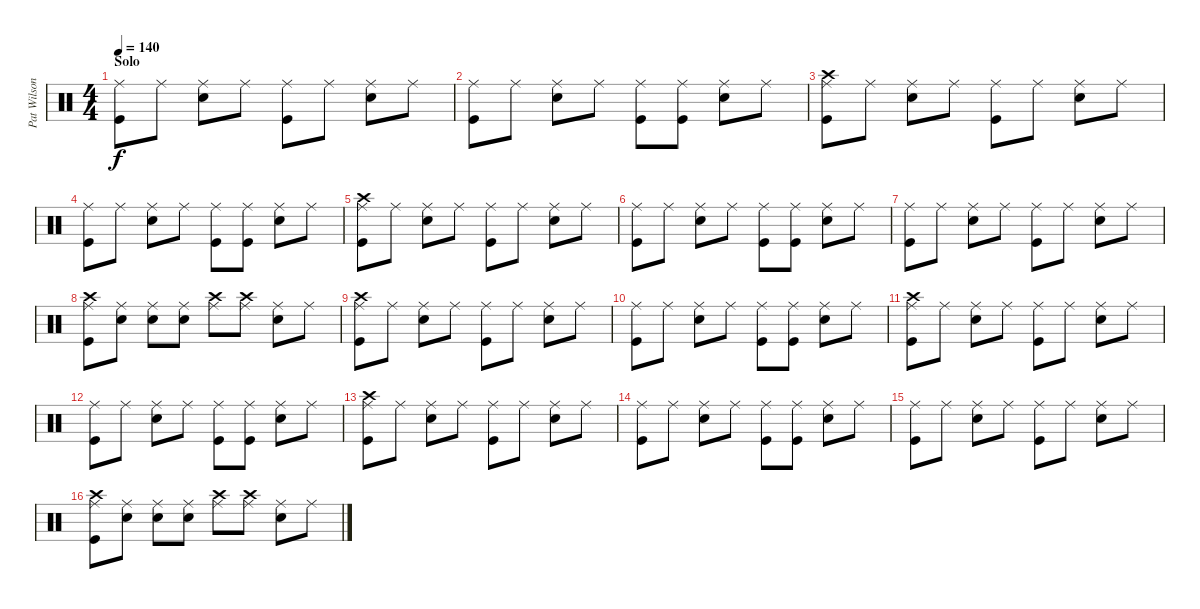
\track ("Pat Wilson " "Pat Wilson") {instrument percussion}
\staff {score}
\articulation defaults
\ts (4 4)
\section ("" "Solo")
\tempo 140
\clef neutral
\ks c
("Kick (hit)" "Ride (middle)").8{dy f} "Ride (middle)".8 ("Snare (hit) 2" "Ride (middle)").8 "Ride (middle)".8 ("Kick (hit)" "Ride (middle)").8 "Ride (middle)".8 ("Snare (hit) 2" "Ride (middle)").8 "Ride (middle)".8 |
("Kick (hit)" "Ride (middle)").8 "Ride (middle)".8 ("Snare (hit) 2" "Ride (middle)").8 "Ride (middle)".8 ("Kick (hit)" "Ride (middle)").8 ("Kick (hit)" "Ride (middle)").8 ("Snare (hit) 2" "Ride (middle)").8 "Ride (middle)".8 |
("Crash high (hit)" "Kick (hit)" "Ride (middle)").8 "Ride (middle)".8 ("Snare (hit) 2" "Ride (middle)").8 "Ride (middle)".8 ("Kick (hit)" "Ride (middle)").8 "Ride (middle)".8 ("Snare (hit) 2" "Ride (middle)").8 "Ride (middle)".8 |
("Kick (hit)" "Ride (middle)").8 "Ride (middle)".8 ("Snare (hit) 2" "Ride (middle)").8 "Ride (middle)".8 ("Kick (hit)" "Ride (middle)").8 ("Kick (hit)" "Ride (middle)").8 ("Snare (hit) 2" "Ride (middle)").8 "Ride (middle)".8 |
("Crash high (hit)" "Kick (hit)" "Ride (middle)").8 "Ride (middle)".8 ("Snare (hit) 2" "Ride (middle)").8 "Ride (middle)".8 ("Kick (hit)" "Ride (middle)").8 "Ride (middle)".8 ("Snare (hit) 2" "Ride (middle)").8 "Ride (middle)".8 |
("Kick (hit)" "Ride (middle)").8 "Ride (middle)".8 ("Snare (hit) 2" "Ride (middle)").8 "Ride (middle)".8 ("Kick (hit)" "Ride (middle)").8 ("Kick (hit)" "Ride (middle)").8 ("Snare (hit) 2" "Ride (middle)").8 "Ride (middle)".8 |
("Kick (hit)" "Ride (middle)").8 "Ride (middle)".8 ("Snare (hit) 2" "Ride (middle)").8 "Ride (middle)".8 ("Kick (hit)" "Ride (middle)").8 "Ride (middle)".8 ("Snare (hit) 2" "Ride (middle)").8 "Ride (middle)".8 |
("Crash high (hit)" "Kick (hit)" "Ride (middle)").8 ("Snare (hit) 2" "Ride (middle)").8 ("Snare (hit) 2" "Ride (middle)").8 ("Snare (hit) 2" "Ride (middle)").8 ("Crash high (hit)" "Ride (middle)").8 ("Crash high (hit)" "Ride (middle)").8 ("Snare (hit) 2" "Ride (middle)").8 "Ride (middle)".8 |
("Crash high (hit)" "Kick (hit)" "Ride (middle)").8 "Ride (middle)".8 ("Snare (hit) 2" "Ride (middle)").8 "Ride (middle)".8 ("Kick (hit)" "Ride (middle)").8 "Ride (middle)".8 ("Snare (hit) 2" "Ride (middle)").8 "Ride (middle)".8 |
("Kick (hit)" "Ride (middle)").8 "Ride (middle)".8 ("Snare (hit) 2" "Ride (middle)").8 "Ride (middle)".8 ("Kick (hit)" "Ride (middle)").8 ("Kick (hit)" "Ride (middle)").8 ("Snare (hit) 2" "Ride (middle)").8 "Ride (middle)".8 |
("Crash high (hit)" "Kick (hit)" "Ride (middle)").8 "Ride (middle)".8 ("Snare (hit) 2" "Ride (middle)").8 "Ride (middle)".8 ("Kick (hit)" "Ride (middle)").8 "Ride (middle)".8 ("Snare (hit) 2" "Ride (middle)").8 "Ride (middle)".8 |
("Kick (hit)" "Ride (middle)").8 "Ride (middle)".8 ("Snare (hit) 2" "Ride (middle)").8 "Ride (middle)".8 ("Kick (hit)" "Ride (middle)").8 ("Kick (hit)" "Ride (middle)").8 ("Snare (hit) 2" "Ride (middle)").8 "Ride (middle)".8 |
("Crash high (hit)" "Kick (hit)" "Ride (middle)").8 "Ride (middle)".8 ("Snare (hit) 2" "Ride (middle)").8 "Ride (middle)".8 ("Kick (hit)" "Ride (middle)").8 "Ride (middle)".8 ("Snare (hit) 2" "Ride (middle)").8 "Ride (middle)".8 |
("Kick (hit)" "Ride (middle)").8 "Ride (middle)".8 ("Snare (hit) 2" "Ride (middle)").8 "Ride (middle)".8 ("Kick (hit)" "Ride (middle)").8 ("Kick (hit)" "Ride (middle)").8 ("Snare (hit) 2" "Ride (middle)").8 "Ride (middle)".8 |
("Kick (hit)" "Ride (middle)").8 "Ride (middle)".8 ("Snare (hit) 2" "Ride (middle)").8 "Ride (middle)".8 ("Kick (hit)" "Ride (middle)").8 "Ride (middle)".8 ("Snare (hit) 2" "Ride (middle)").8 "Ride (middle)".8 |
("Crash high (hit)" "Kick (hit)" "Ride (middle)").8 ("Snare (hit) 2" "Ride (middle)").8 ("Snare (hit) 2" "Ride (middle)").8 ("Snare (hit) 2" "Ride (middle)").8 ("Crash high (hit)" "Ride (middle)").8 ("Crash high (hit)" "Ride (middle)").8 ("Snare (hit) 2" "Ride (middle)").8 "Ride (middle)".8
